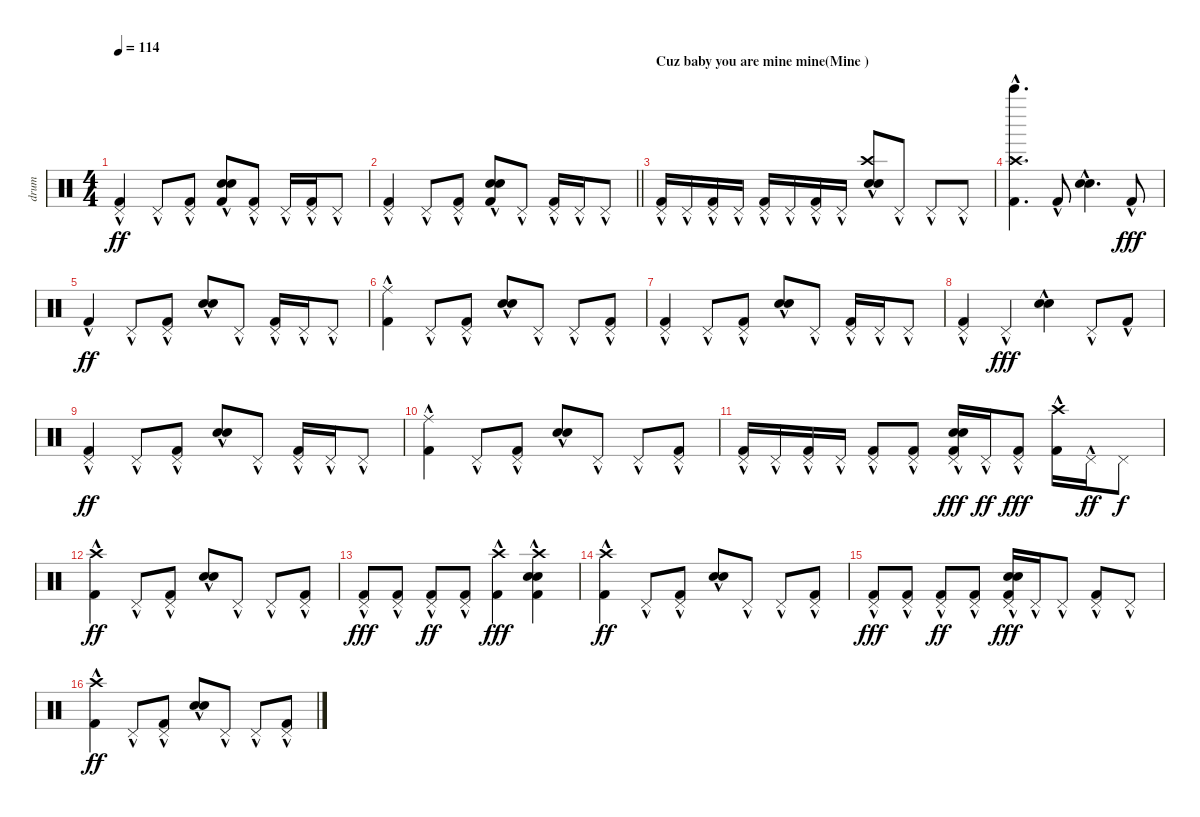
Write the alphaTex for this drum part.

\track ("drum" "drum") {instrument percussion}
\staff {score}
\articulation defaults
\ts (4 4)
\tempo 114
\clef neutral
\ks c
("Pedal Hi-Hat (hit)"{hac} "Kick (hit) 2"{hac}).4{dy ff} "Pedal Hi-Hat (hit)"{hac}.8 ("Pedal Hi-Hat (hit)"{hac} "Kick (hit) 2"{hac}).8 ("Snare (hit) 2"{hac} "Hand Clap (hit)"{hac} "Kick (hit) 2").8 ("Pedal Hi-Hat (hit)"{hac} "Kick (hit) 2").8 "Pedal Hi-Hat (hit)"{hac}.16 ("Pedal Hi-Hat (hit)"{hac} "Kick (hit) 2").16 "Pedal Hi-Hat (hit)"{hac}.8 |
\barLineRight lightlight
("Pedal Hi-Hat (hit)"{hac} "Kick (hit) 2"{hac}).4 "Pedal Hi-Hat (hit)"{hac}.8 ("Pedal Hi-Hat (hit)"{hac} "Kick (hit) 2"{hac}).8 ("Snare (hit) 2"{hac} "Hand Clap (hit)"{hac} "Kick (hit) 2").8 "Pedal Hi-Hat (hit)"{hac}.8 ("Pedal Hi-Hat (hit)"{hac} "Kick (hit) 2"{hac}).16 "Pedal Hi-Hat (hit)"{hac}.16 "Pedal Hi-Hat (hit)"{hac}.8 |
\section ("" "Cuz baby you are mine mine(Mine )")
("Pedal Hi-Hat (hit)"{hac} "Kick (hit) 2"{hac}).16 "Pedal Hi-Hat (hit)"{hac}.16 ("Pedal Hi-Hat (hit)"{hac} "Kick (hit) 2"{hac}).16 "Pedal Hi-Hat (hit)"{hac}.16 ("Pedal Hi-Hat (hit)"{hac} "Kick (hit) 2"{hac}).16 "Pedal Hi-Hat (hit)"{hac}.16 ("Pedal Hi-Hat (hit)"{hac} "Kick (hit) 2"{hac}).16 "Pedal Hi-Hat (hit)"{hac}.16 ("Crash high (hit)"{hac} "Hand Clap (hit)"{hac} "Electric Snare (hit)"{hac}).8 "Pedal Hi-Hat (hit)"{hac}.8 "Pedal Hi-Hat (hit)"{hac}.8 "Pedal Hi-Hat (hit)"{hac}.8 |
("Crash high (hit)"{hac} "Bell Tree (hit)"{hac} "Kick (hit) 2"{hac}).4{d} "Kick (hit) 2"{hac}.8 ("Snare (hit) 2"{hac} "Hand Clap (hit)"{hac}).4{d} "Kick (hit) 2"{hac}.8{dy fff} |
"Kick (hit) 2"{hac}.4{dy ff} "Pedal Hi-Hat (hit)"{hac}.8 ("Pedal Hi-Hat (hit)"{hac} "Kick (hit) 2"{hac}).8 ("Snare (hit) 2"{hac} "Hand Clap (hit)"{hac}).8 "Pedal Hi-Hat (hit)"{hac}.8 ("Pedal Hi-Hat (hit)"{hac} "Kick (hit) 2"{hac}).16 "Pedal Hi-Hat (hit)"{hac}.16 "Pedal Hi-Hat (hit)"{hac}.8 |
("Ride (middle)" "Kick (hit) 2"{hac}).4 "Pedal Hi-Hat (hit)"{hac}.8 ("Pedal Hi-Hat (hit)"{hac} "Kick (hit) 2"{hac}).8 ("Snare (hit) 2"{hac} "Hand Clap (hit)"{hac}).8 "Pedal Hi-Hat (hit)"{hac}.8 "Pedal Hi-Hat (hit)"{hac}.8 ("Pedal Hi-Hat (hit)"{hac} "Kick (hit) 2"{hac}).8 |
("Pedal Hi-Hat (hit)"{hac} "Kick (hit) 2"{hac}).4 "Pedal Hi-Hat (hit)"{hac}.8 ("Pedal Hi-Hat (hit)"{hac} "Kick (hit) 2"{hac}).8 ("Snare (hit) 2"{hac} "Hand Clap (hit)"{hac}).8 "Pedal Hi-Hat (hit)"{hac}.8 ("Pedal Hi-Hat (hit)"{hac} "Kick (hit) 2"{hac}).16 "Pedal Hi-Hat (hit)"{hac}.16 "Pedal Hi-Hat (hit)"{hac}.8 |
("Pedal Hi-Hat (hit)" "Kick (hit) 2"{hac}).4 "Pedal Hi-Hat (hit)"{hac}.4{dy fff} ("Snare (hit) 2"{hac} "Hand Clap (hit)"{hac}).4 "Pedal Hi-Hat (hit)"{hac}.8 "Kick (hit) 2"{hac}.8 |
("Pedal Hi-Hat (hit)" "Kick (hit) 2"{hac}).4{dy ff} "Pedal Hi-Hat (hit)"{hac}.8 ("Pedal Hi-Hat (hit)"{hac} "Kick (hit) 2"{hac}).8 ("Snare (hit) 2"{hac} "Hand Clap (hit)"{hac}).8 "Pedal Hi-Hat (hit)"{hac}.8 ("Pedal Hi-Hat (hit)"{hac} "Kick (hit) 2"{hac}).16 "Pedal Hi-Hat (hit)"{hac}.16 "Pedal Hi-Hat (hit)"{hac}.8 |
("Ride (middle)"{hac} "Kick (hit) 2"{hac}).4 "Pedal Hi-Hat (hit)"{hac}.8 ("Pedal Hi-Hat (hit)"{hac} "Kick (hit) 2"{hac}).8 ("Snare (hit) 2"{hac} "Hand Clap (hit)"{hac}).8 "Pedal Hi-Hat (hit)"{hac}.8 "Pedal Hi-Hat (hit)"{hac}.8 ("Pedal Hi-Hat (hit)"{hac} "Kick (hit) 2"{hac}).8 |
("Pedal Hi-Hat (hit)"{hac} "Kick (hit) 2"{hac}).16 "Pedal Hi-Hat (hit)"{hac}.16 ("Pedal Hi-Hat (hit)"{hac} "Kick (hit) 2"{hac}).16 "Pedal Hi-Hat (hit)"{hac}.16 ("Pedal Hi-Hat (hit)"{hac} "Kick (hit) 2"{hac}).8 ("Pedal Hi-Hat (hit)"{hac} "Kick (hit) 2"{hac}).8 ("Pedal Hi-Hat (hit)"{hac} "Snare (hit) 2"{hac} "Hand Clap (hit)"{hac} "Kick (hit) 2"{hac}).16{dy fff} "Pedal Hi-Hat (hit)"{hac}.16{dy ff} ("Pedal Hi-Hat (hit)"{hac} "Kick (hit) 2"{hac}).8{dy fff} ("Crash high (hit)"{hac} "Kick (hit) 2"{hac}).16 "Pedal Hi-Hat (hit)"{hac}.16{dy ff} "Pedal Hi-Hat (hit)".8{dy f} |
("Crash high (hit)"{hac} "Kick (hit) 2"{hac}).4{dy ff} "Pedal Hi-Hat (hit)"{hac}.8 ("Pedal Hi-Hat (hit)"{hac} "Kick (hit) 2"{hac}).8 ("Snare (hit) 2"{hac} "Hand Clap (hit)"{hac}).8 "Pedal Hi-Hat (hit)"{hac}.8 "Pedal Hi-Hat (hit)"{hac}.8 ("Pedal Hi-Hat (hit)"{hac} "Kick (hit) 2"{hac}).8 |
("Pedal Hi-Hat (hit)"{hac} "Kick (hit) 2"{hac}).8{dy fff} ("Pedal Hi-Hat (hit)"{hac} "Kick (hit) 2"{hac}).8 ("Pedal Hi-Hat (hit)"{hac} "Kick (hit) 2"{hac}).8{dy ff} ("Pedal Hi-Hat (hit)"{hac} "Kick (hit) 2"{hac}).8 ("Crash high (hit)"{hac} "Kick (hit) 2"{hac}).4{dy fff} ("Crash high (hit)"{hac} "Snare (hit) 2"{hac} "Hand Clap (hit)"{hac} "Kick (hit) 2"{hac}).4 |
("Crash high (hit)"{hac} "Kick (hit) 2"{hac}).4{dy ff} "Pedal Hi-Hat (hit)"{hac}.8 ("Pedal Hi-Hat (hit)"{hac} "Kick (hit) 2"{hac}).8 ("Snare (hit) 2"{hac} "Hand Clap (hit)"{hac}).8 "Pedal Hi-Hat (hit)"{hac}.8 "Pedal Hi-Hat (hit)"{hac}.8 ("Pedal Hi-Hat (hit)"{hac} "Kick (hit) 2"{hac}).8 |
("Pedal Hi-Hat (hit)"{hac} "Kick (hit) 2"{hac}).8{dy fff} ("Pedal Hi-Hat (hit)"{hac} "Kick (hit) 2"{hac}).8 ("Pedal Hi-Hat (hit)"{hac} "Kick (hit) 2"{hac}).8{dy ff} ("Pedal Hi-Hat (hit)"{hac} "Kick (hit) 2"{hac}).8 ("Pedal Hi-Hat (hit)"{hac} "Snare (hit) 2"{hac} "Hand Clap (hit)"{hac} "Kick (hit) 2"{hac}).16{dy fff} "Pedal Hi-Hat (hit)"{hac}.16 "Pedal Hi-Hat (hit)"{hac}.8 ("Pedal Hi-Hat (hit)"{hac} "Kick (hit) 2"{hac}).8 "Pedal Hi-Hat (hit)"{hac}.8 |
("Crash high (hit)"{hac} "Kick (hit) 2"{hac}).4{dy ff} "Pedal Hi-Hat (hit)"{hac}.8 ("Pedal Hi-Hat (hit)"{hac} "Kick (hit) 2"{hac}).8 ("Snare (hit) 2"{hac} "Hand Clap (hit)"{hac}).8 "Pedal Hi-Hat (hit)"{hac}.8 "Pedal Hi-Hat (hit)"{hac}.8 ("Pedal Hi-Hat (hit)"{hac} "Kick (hit) 2"{hac}).8
